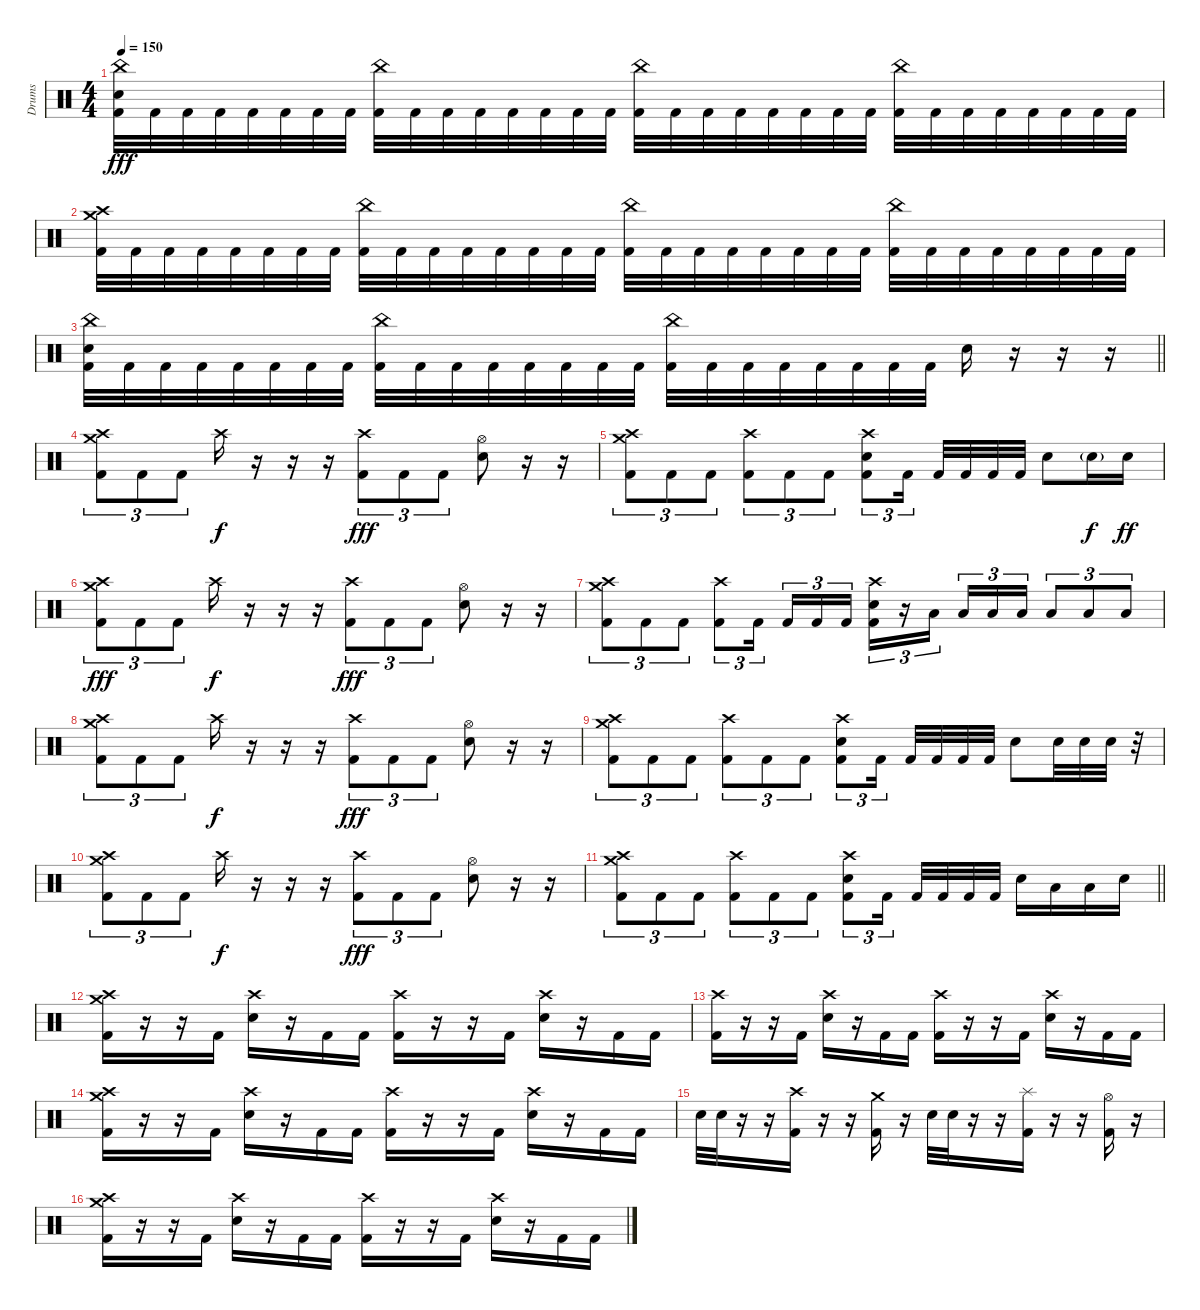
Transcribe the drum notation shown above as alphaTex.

\track ("Drums" "Drums") {instrument percussion}
\staff {score}
\articulation defaults
\ts (4 4)
\tempo 150
\clef neutral
\ks c
("China (hit)" "Electric Snare (hit)" "Kick (hit) 2").32{dy fff} "Kick (hit) 2".32 "Kick (hit) 2".32 "Kick (hit) 2".32 "Kick (hit) 2".32 "Kick (hit) 2".32 "Kick (hit) 2".32 "Kick (hit) 2".32 ("China (hit)" "Kick (hit) 2").32 "Kick (hit) 2".32 "Kick (hit) 2".32 "Kick (hit) 2".32 "Kick (hit) 2".32 "Kick (hit) 2".32 "Kick (hit) 2".32 "Kick (hit) 2".32 ("China (hit)" "Kick (hit) 2").32 "Kick (hit) 2".32 "Kick (hit) 2".32 "Kick (hit) 2".32 "Kick (hit) 2".32 "Kick (hit) 2".32 "Kick (hit) 2".32 "Kick (hit) 2".32 ("China (hit)" "Kick (hit) 2").32 "Kick (hit) 2".32 "Kick (hit) 2".32 "Kick (hit) 2".32 "Kick (hit) 2".32 "Kick (hit) 2".32 "Kick (hit) 2".32 "Kick (hit) 2".32 |
("Crash high (hit)" "Crash medium (hit)" "Kick (hit) 2").32 "Kick (hit) 2".32 "Kick (hit) 2".32 "Kick (hit) 2".32 "Kick (hit) 2".32 "Kick (hit) 2".32 "Kick (hit) 2".32 "Kick (hit) 2".32 ("China (hit)" "Kick (hit) 2").32 "Kick (hit) 2".32 "Kick (hit) 2".32 "Kick (hit) 2".32 "Kick (hit) 2".32 "Kick (hit) 2".32 "Kick (hit) 2".32 "Kick (hit) 2".32 ("China (hit)" "Kick (hit) 2").32 "Kick (hit) 2".32 "Kick (hit) 2".32 "Kick (hit) 2".32 "Kick (hit) 2".32 "Kick (hit) 2".32 "Kick (hit) 2".32 "Kick (hit) 2".32 ("China (hit)" "Kick (hit) 2").32 "Kick (hit) 2".32 "Kick (hit) 2".32 "Kick (hit) 2".32 "Kick (hit) 2".32 "Kick (hit) 2".32 "Kick (hit) 2".32 "Kick (hit) 2".32 |
\barLineRight lightlight
("China (hit)" "Electric Snare (hit)" "Kick (hit) 2").32 "Kick (hit) 2".32 "Kick (hit) 2".32 "Kick (hit) 2".32 "Kick (hit) 2".32 "Kick (hit) 2".32 "Kick (hit) 2".32 "Kick (hit) 2".32 ("China (hit)" "Kick (hit) 2").32 "Kick (hit) 2".32 "Kick (hit) 2".32 "Kick (hit) 2".32 "Kick (hit) 2".32 "Kick (hit) 2".32 "Kick (hit) 2".32 "Kick (hit) 2".32 ("China (hit)" "Kick (hit) 2").32 "Kick (hit) 2".32 "Kick (hit) 2".32 "Kick (hit) 2".32 "Kick (hit) 2".32 "Kick (hit) 2".32 "Kick (hit) 2".32 "Kick (hit) 2".32 "Electric Snare (hit)".16 r.16 r.16 r.16 |
\section ("" "")
("Crash high (hit)" "Crash medium (hit)" "Kick (hit) 2").8{tu (3 2)} "Kick (hit) 2".8{tu (3 2)} "Kick (hit) 2".8{tu (3 2)} "Crash high (hit)".16{dy f} r.16 r.16 r.16 ("Crash high (hit)" "Kick (hit) 2").8{tu (3 2) dy fff} "Kick (hit) 2".8{tu (3 2)} "Kick (hit) 2".8{tu (3 2)} ("Hi-Hat (open)" "Electric Snare (hit)").8 r.16{volume 0} r.16 |
("Crash high (hit)" "Crash medium (hit)" "Kick (hit) 2").8{tu (3 2) volume 13} "Kick (hit) 2".8{tu (3 2)} "Kick (hit) 2".8{tu (3 2)} ("Crash high (hit)" "Kick (hit) 2").8{tu (3 2)} "Kick (hit) 2".8{tu (3 2)} "Kick (hit) 2".8{tu (3 2)} ("Crash high (hit)" "Electric Snare (hit)" "Kick (hit) 2").8{tu (3 2)} "Kick (hit) 2".16{tu (3 2) beam splitsecondary} "Kick (hit) 2".32 "Kick (hit) 2".32 "Kick (hit) 2".32 "Kick (hit) 2".32 "Electric Snare (hit)".8 "Electric Snare (hit)"{g}.16{dy f} "Electric Snare (hit)".16{dy ff} |
("Crash high (hit)" "Crash medium (hit)" "Kick (hit) 2").8{tu (3 2) dy fff} "Kick (hit) 2".8{tu (3 2)} "Kick (hit) 2".8{tu (3 2)} "Crash high (hit)".16{dy f} r.16 r.16 r.16 ("Crash high (hit)" "Kick (hit) 2").8{tu (3 2) dy fff} "Kick (hit) 2".8{tu (3 2)} "Kick (hit) 2".8{tu (3 2)} ("Hi-Hat (open)" "Electric Snare (hit)").8 r.16{volume 0} r.16 |
("Crash high (hit)" "Crash medium (hit)" "Kick (hit) 2").8{tu (3 2) volume 13} "Kick (hit) 2".8{tu (3 2)} "Kick (hit) 2".8{tu (3 2)} ("Crash high (hit)" "Kick (hit) 2").8{tu (3 2)} "Kick (hit) 2".16{tu (3 2) beam splitsecondary} "Kick (hit) 2".16{tu (3 2)} "Kick (hit) 2".16{tu (3 2)} "Kick (hit) 2".16{tu (3 2)} ("Crash high (hit)" "Electric Snare (hit)" "Kick (hit) 2").16{tu (3 2)} r.16{tu (3 2)} "Low Tom (hit)".16{tu (3 2) beam splitsecondary} "Low Tom (hit)".16{tu (3 2)} "Low Tom (hit)".16{tu (3 2)} "Low Tom (hit)".16{tu (3 2)} "Low Tom (hit)".8{tu (3 2)} "Low Floor Tom (hit)".8{tu (3 2)} "Low Floor Tom (hit)".8{tu (3 2)} |
("Crash high (hit)" "Crash medium (hit)" "Kick (hit) 2").8{tu (3 2)} "Kick (hit) 2".8{tu (3 2)} "Kick (hit) 2".8{tu (3 2)} "Crash high (hit)".16{dy f} r.16 r.16 r.16 ("Crash high (hit)" "Kick (hit) 2").8{tu (3 2) dy fff} "Kick (hit) 2".8{tu (3 2)} "Kick (hit) 2".8{tu (3 2)} ("Hi-Hat (open)" "Electric Snare (hit)").8 r.16{volume 0} r.16 |
("Crash high (hit)" "Crash medium (hit)" "Kick (hit) 2").8{tu (3 2) volume 13} "Kick (hit) 2".8{tu (3 2)} "Kick (hit) 2".8{tu (3 2)} ("Crash high (hit)" "Kick (hit) 2").8{tu (3 2)} "Kick (hit) 2".8{tu (3 2)} "Kick (hit) 2".8{tu (3 2)} ("Crash high (hit)" "Electric Snare (hit)" "Kick (hit) 2").8{tu (3 2)} "Kick (hit) 2".16{tu (3 2) beam splitsecondary} "Kick (hit) 2".32 "Kick (hit) 2".32 "Kick (hit) 2".32 "Kick (hit) 2".32 "Electric Snare (hit)".8 "Electric Snare (hit)".32 "Electric Snare (hit)".32 "Electric Snare (hit)".32 r.32 |
("Crash high (hit)" "Crash medium (hit)" "Kick (hit) 2").8{tu (3 2)} "Kick (hit) 2".8{tu (3 2)} "Kick (hit) 2".8{tu (3 2)} "Crash high (hit)".16{dy f} r.16 r.16 r.16 ("Crash high (hit)" "Kick (hit) 2").8{tu (3 2) dy fff} "Kick (hit) 2".8{tu (3 2)} "Kick (hit) 2".8{tu (3 2)} ("Hi-Hat (open)" "Electric Snare (hit)").8 r.16{volume 0} r.16 |
\barLineRight lightlight
("Crash high (hit)" "Crash medium (hit)" "Kick (hit) 2").8{tu (3 2) volume 13} "Kick (hit) 2".8{tu (3 2)} "Kick (hit) 2".8{tu (3 2)} ("Crash high (hit)" "Kick (hit) 2").8{tu (3 2)} "Kick (hit) 2".8{tu (3 2)} "Kick (hit) 2".8{tu (3 2)} ("Crash high (hit)" "Electric Snare (hit)" "Kick (hit) 2").8{tu (3 2)} "Kick (hit) 2".16{tu (3 2) beam splitsecondary} "Kick (hit) 2".32 "Kick (hit) 2".32 "Kick (hit) 2".32 "Kick (hit) 2".32 "Electric Snare (hit)".16 "Low Tom (hit)".16 "Low Floor Tom (hit)".16 "Electric Snare (hit)".16 |
\section ("" "")
("Crash high (hit)" "Crash medium (hit)" "Kick (hit) 2").16 r.16 r.16 "Kick (hit) 2".16 ("Crash high (hit)" "Electric Snare (hit)").16 r.16 "Kick (hit) 2".16 "Kick (hit) 2".16 ("Crash high (hit)" "Kick (hit) 2").16 r.16 r.16 "Kick (hit) 2".16 ("Crash high (hit)" "Electric Snare (hit)").16 r.16 "Kick (hit) 2".16 "Kick (hit) 2".16 |
("Crash high (hit)" "Kick (hit) 2").16 r.16 r.16 "Kick (hit) 2".16 ("Crash high (hit)" "Electric Snare (hit)").16 r.16 "Kick (hit) 2".16 "Kick (hit) 2".16 ("Crash high (hit)" "Kick (hit) 2").16 r.16 r.16 "Kick (hit) 2".16 ("Crash high (hit)" "Electric Snare (hit)").16 r.16 "Kick (hit) 2".16 "Kick (hit) 2".16 |
("Crash high (hit)" "Crash medium (hit)" "Kick (hit) 2").16 r.16 r.16 "Kick (hit) 2".16 ("Crash high (hit)" "Electric Snare (hit)").16 r.16 "Kick (hit) 2".16 "Kick (hit) 2".16 ("Crash high (hit)" "Kick (hit) 2").16 r.16 r.16 "Kick (hit) 2".16 ("Crash high (hit)" "Electric Snare (hit)").16 r.16 "Kick (hit) 2".16 "Kick (hit) 2".16 |
"Electric Snare (hit)".32 "Electric Snare (hit)".32 r.16 r.16 ("Crash high (hit)" "Kick (hit) 2").16 r.16 r.16 ("Crash medium (hit)" "Kick (hit) 2").16 r.16 "Electric Snare (hit)".32 "Electric Snare (hit)".32 r.16 r.16 ("Splash (hit)" "Kick (hit) 2").16 r.16 r.16 ("Hi-Hat (open)" "Kick (hit) 2").16 r.16 |
("Crash high (hit)" "Crash medium (hit)" "Kick (hit) 2").16 r.16 r.16 "Kick (hit) 2".16 ("Crash high (hit)" "Electric Snare (hit)").16 r.16 "Kick (hit) 2".16 "Kick (hit) 2".16 ("Crash high (hit)" "Kick (hit) 2").16 r.16 r.16 "Kick (hit) 2".16 ("Crash high (hit)" "Electric Snare (hit)").16 r.16 "Kick (hit) 2".16 "Kick (hit) 2".16
